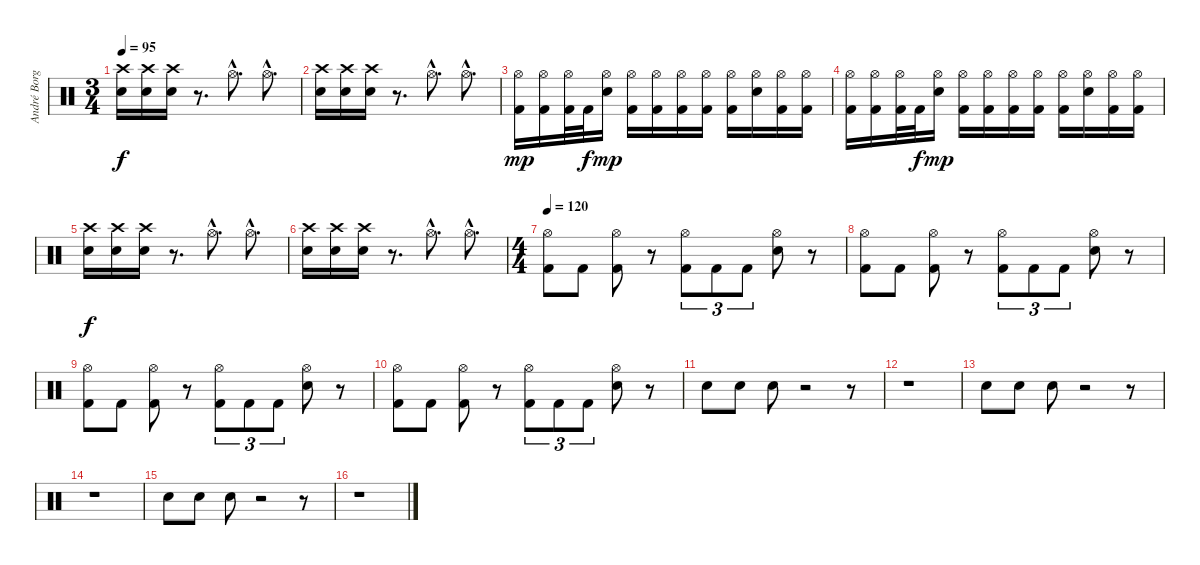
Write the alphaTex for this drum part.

\track ("André Borgman" "André Borg") {instrument percussion}
\staff {score}
\articulation defaults
\ts (3 4)
\tempo 95
\clef neutral
\ks c
("Crash high (hit)" "Electric Snare (hit)").16{dy f} ("Crash high (hit)" "Electric Snare (hit)").16 ("Crash high (hit)" "Electric Snare (hit)").16 r.8{d} "Hi-Hat (open)"{hac}.8{d} "Hi-Hat (open)"{hac}.8{d} |
("Crash high (hit)" "Electric Snare (hit)").16 ("Crash high (hit)" "Electric Snare (hit)").16 ("Crash high (hit)" "Electric Snare (hit)").16 r.8{d} "Hi-Hat (open)"{hac}.8{d} "Hi-Hat (open)"{hac}.8{d} |
("Hi-Hat (open)" "Kick (hit) 2").16{dy mp} ("Hi-Hat (open)" "Kick (hit) 2").16 ("Hi-Hat (open)" "Kick (hit) 2").32 "Kick (hit) 2".32{dy f} ("Hi-Hat (open)" "Electric Snare (hit)").16{dy mp} ("Hi-Hat (open)" "Kick (hit) 2").16 ("Hi-Hat (open)" "Kick (hit) 2").16 ("Hi-Hat (open)" "Kick (hit) 2").16 ("Hi-Hat (open)" "Kick (hit) 2").16 ("Hi-Hat (open)" "Kick (hit) 2").16 ("Hi-Hat (open)" "Electric Snare (hit)").16 ("Hi-Hat (open)" "Kick (hit) 2").16 ("Hi-Hat (open)" "Kick (hit) 2").16 |
("Hi-Hat (open)" "Kick (hit) 2").16 ("Hi-Hat (open)" "Kick (hit) 2").16 ("Hi-Hat (open)" "Kick (hit) 2").32 "Kick (hit) 2".32{dy f} ("Hi-Hat (open)" "Electric Snare (hit)").16{dy mp} ("Hi-Hat (open)" "Kick (hit) 2").16 ("Hi-Hat (open)" "Kick (hit) 2").16 ("Hi-Hat (open)" "Kick (hit) 2").16 ("Hi-Hat (open)" "Kick (hit) 2").16 ("Hi-Hat (open)" "Kick (hit) 2").16 ("Hi-Hat (open)" "Electric Snare (hit)").16 ("Hi-Hat (open)" "Kick (hit) 2").16 ("Hi-Hat (open)" "Kick (hit) 2").16 |
("Crash high (hit)" "Electric Snare (hit)").16{dy f} ("Crash high (hit)" "Electric Snare (hit)").16 ("Crash high (hit)" "Electric Snare (hit)").16 r.8{d} "Hi-Hat (open)"{hac}.8{d} "Hi-Hat (open)"{hac}.8{d} |
("Crash high (hit)" "Electric Snare (hit)").16 ("Crash high (hit)" "Electric Snare (hit)").16 ("Crash high (hit)" "Electric Snare (hit)").16 r.8{d} "Hi-Hat (open)"{hac}.8{d} "Hi-Hat (open)"{hac}.8{d} |
\ts (4 4)
\tempo 120
("Hi-Hat (open)" "Kick (hit) 2").8 "Kick (hit) 2".8 ("Hi-Hat (open)" "Kick (hit) 2").8 r.8 ("Hi-Hat (open)" "Kick (hit) 2").8{tu (3 2)} "Kick (hit) 2".8{tu (3 2)} "Kick (hit) 2".8{tu (3 2)} ("Hi-Hat (open)" "Electric Snare (hit)").8 r.8 |
("Hi-Hat (open)" "Kick (hit) 2").8 "Kick (hit) 2".8 ("Hi-Hat (open)" "Kick (hit) 2").8 r.8 ("Hi-Hat (open)" "Kick (hit) 2").8{tu (3 2)} "Kick (hit) 2".8{tu (3 2)} "Kick (hit) 2".8{tu (3 2)} ("Hi-Hat (open)" "Electric Snare (hit)").8 r.8 |
("Hi-Hat (open)" "Kick (hit) 2").8 "Kick (hit) 2".8 ("Hi-Hat (open)" "Kick (hit) 2").8 r.8 ("Hi-Hat (open)" "Kick (hit) 2").8{tu (3 2)} "Kick (hit) 2".8{tu (3 2)} "Kick (hit) 2".8{tu (3 2)} ("Hi-Hat (open)" "Electric Snare (hit)").8 r.8 |
("Hi-Hat (open)" "Kick (hit) 2").8 "Kick (hit) 2".8 ("Hi-Hat (open)" "Kick (hit) 2").8 r.8 ("Hi-Hat (open)" "Kick (hit) 2").8{tu (3 2)} "Kick (hit) 2".8{tu (3 2)} "Kick (hit) 2".8{tu (3 2)} ("Hi-Hat (open)" "Electric Snare (hit)").8 r.8 |
"Electric Snare (hit)".8 "Electric Snare (hit)".8 "Electric Snare (hit)".8 r.2 r.8 |
r.1 |
"Electric Snare (hit)".8 "Electric Snare (hit)".8 "Electric Snare (hit)".8 r.2 r.8 |
r.1 |
"Electric Snare (hit)".8 "Electric Snare (hit)".8 "Electric Snare (hit)".8 r.2 r.8 |
r.1
